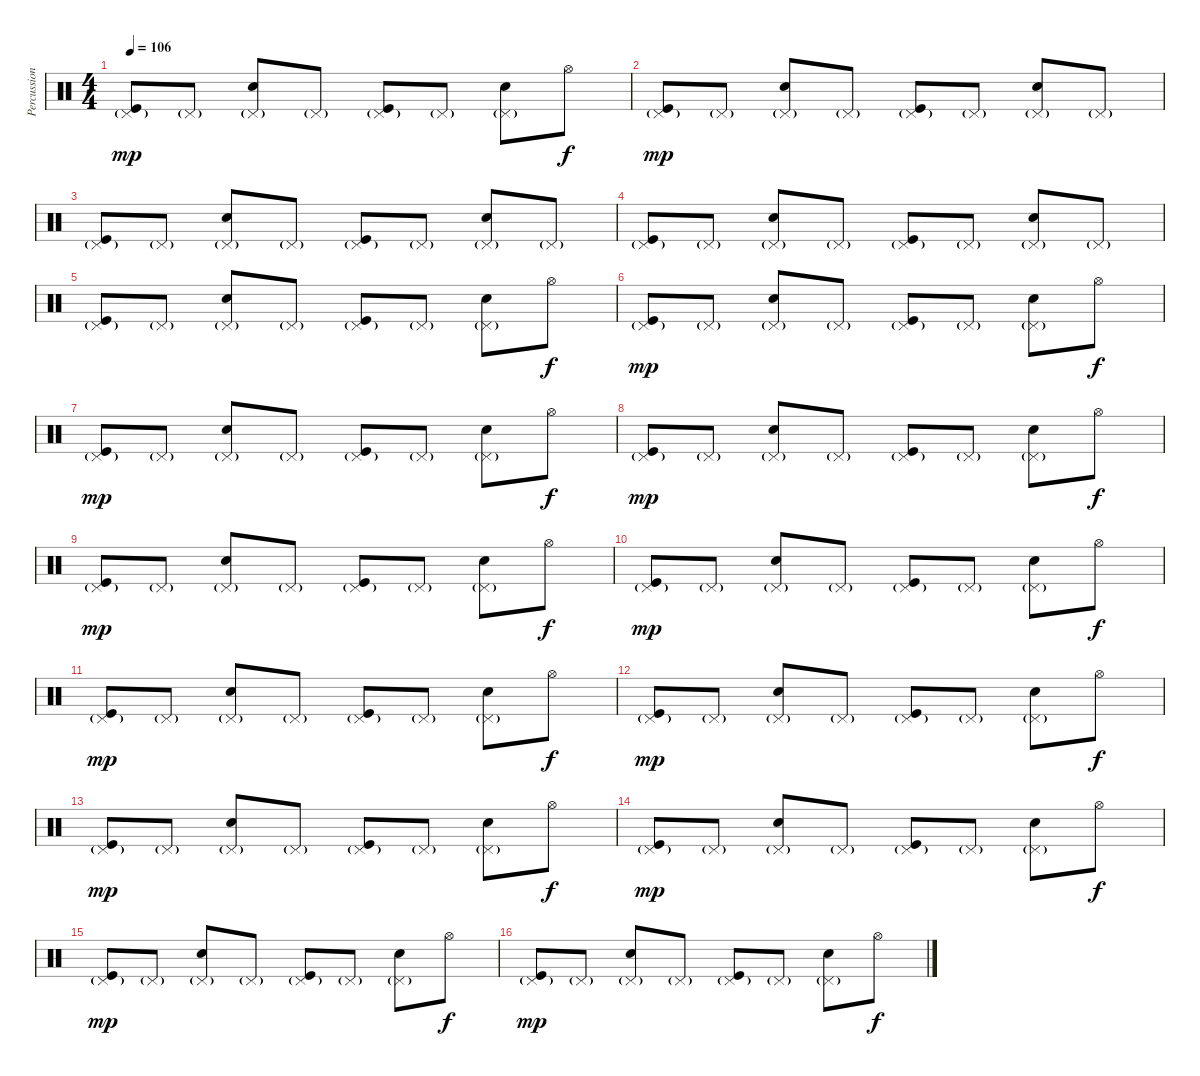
\track ("Percussions" "Percussion") {instrument percussion}
\staff {score}
\articulation defaults
\ts (4 4)
\tempo 106
\clef neutral
\ks c
("Pedal Hi-Hat (hit)"{g} "Kick (hit)").8{dy mp} "Pedal Hi-Hat (hit)"{g}.8 ("Pedal Hi-Hat (hit)"{g} "Electric Snare (hit)").8 "Pedal Hi-Hat (hit)"{g}.8 ("Pedal Hi-Hat (hit)"{g} "Kick (hit)").8 "Pedal Hi-Hat (hit)"{g}.8 ("Pedal Hi-Hat (hit)"{g} "Electric Snare (hit)").8 "Hi-Hat (open)".8{dy f} |
("Pedal Hi-Hat (hit)"{g} "Kick (hit)").8{dy mp volume 13} "Pedal Hi-Hat (hit)"{g}.8 ("Pedal Hi-Hat (hit)"{g} "Electric Snare (hit)").8 "Pedal Hi-Hat (hit)"{g}.8 ("Pedal Hi-Hat (hit)"{g} "Kick (hit)").8 "Pedal Hi-Hat (hit)"{g}.8 ("Pedal Hi-Hat (hit)"{g} "Electric Snare (hit)").8 "Pedal Hi-Hat (hit)"{g}.8 |
("Pedal Hi-Hat (hit)"{g} "Kick (hit)").8 "Pedal Hi-Hat (hit)"{g}.8 ("Pedal Hi-Hat (hit)"{g} "Electric Snare (hit)").8 "Pedal Hi-Hat (hit)"{g}.8 ("Pedal Hi-Hat (hit)"{g} "Kick (hit)").8 "Pedal Hi-Hat (hit)"{g}.8 ("Pedal Hi-Hat (hit)"{g} "Electric Snare (hit)").8 "Pedal Hi-Hat (hit)"{g}.8 |
("Pedal Hi-Hat (hit)"{g} "Kick (hit)").8 "Pedal Hi-Hat (hit)"{g}.8 ("Pedal Hi-Hat (hit)"{g} "Electric Snare (hit)").8 "Pedal Hi-Hat (hit)"{g}.8 ("Pedal Hi-Hat (hit)"{g} "Kick (hit)").8 "Pedal Hi-Hat (hit)"{g}.8 ("Pedal Hi-Hat (hit)"{g} "Electric Snare (hit)").8 "Pedal Hi-Hat (hit)"{g}.8 |
("Pedal Hi-Hat (hit)"{g} "Kick (hit)").8 "Pedal Hi-Hat (hit)"{g}.8 ("Pedal Hi-Hat (hit)"{g} "Electric Snare (hit)").8 "Pedal Hi-Hat (hit)"{g}.8 ("Pedal Hi-Hat (hit)"{g} "Kick (hit)").8 "Pedal Hi-Hat (hit)"{g}.8 ("Pedal Hi-Hat (hit)"{g} "Electric Snare (hit)").8 "Hi-Hat (open)".8{dy f} |
("Pedal Hi-Hat (hit)"{g} "Kick (hit)").8{dy mp} "Pedal Hi-Hat (hit)"{g}.8 ("Pedal Hi-Hat (hit)"{g} "Electric Snare (hit)").8 "Pedal Hi-Hat (hit)"{g}.8 ("Pedal Hi-Hat (hit)"{g} "Kick (hit)").8 "Pedal Hi-Hat (hit)"{g}.8 ("Pedal Hi-Hat (hit)"{g} "Electric Snare (hit)").8 "Hi-Hat (open)".8{dy f} |
("Pedal Hi-Hat (hit)"{g} "Kick (hit)").8{dy mp} "Pedal Hi-Hat (hit)"{g}.8 ("Pedal Hi-Hat (hit)"{g} "Electric Snare (hit)").8 "Pedal Hi-Hat (hit)"{g}.8 ("Pedal Hi-Hat (hit)"{g} "Kick (hit)").8 "Pedal Hi-Hat (hit)"{g}.8 ("Pedal Hi-Hat (hit)"{g} "Electric Snare (hit)").8 "Hi-Hat (open)".8{dy f} |
("Pedal Hi-Hat (hit)"{g} "Kick (hit)").8{dy mp} "Pedal Hi-Hat (hit)"{g}.8 ("Pedal Hi-Hat (hit)"{g} "Electric Snare (hit)").8 "Pedal Hi-Hat (hit)"{g}.8 ("Pedal Hi-Hat (hit)"{g} "Kick (hit)").8 "Pedal Hi-Hat (hit)"{g}.8 ("Pedal Hi-Hat (hit)"{g} "Electric Snare (hit)").8 "Hi-Hat (open)".8{dy f} |
("Pedal Hi-Hat (hit)"{g} "Kick (hit)").8{dy mp} "Pedal Hi-Hat (hit)"{g}.8 ("Pedal Hi-Hat (hit)"{g} "Electric Snare (hit)").8 "Pedal Hi-Hat (hit)"{g}.8 ("Pedal Hi-Hat (hit)"{g} "Kick (hit)").8 "Pedal Hi-Hat (hit)"{g}.8 ("Pedal Hi-Hat (hit)"{g} "Electric Snare (hit)").8 "Hi-Hat (open)".8{dy f} |
("Pedal Hi-Hat (hit)"{g} "Kick (hit)").8{dy mp} "Pedal Hi-Hat (hit)"{g}.8 ("Pedal Hi-Hat (hit)"{g} "Electric Snare (hit)").8 "Pedal Hi-Hat (hit)"{g}.8 ("Pedal Hi-Hat (hit)"{g} "Kick (hit)").8 "Pedal Hi-Hat (hit)"{g}.8 ("Pedal Hi-Hat (hit)"{g} "Electric Snare (hit)").8 "Hi-Hat (open)".8{dy f} |
("Pedal Hi-Hat (hit)"{g} "Kick (hit)").8{dy mp} "Pedal Hi-Hat (hit)"{g}.8 ("Pedal Hi-Hat (hit)"{g} "Electric Snare (hit)").8 "Pedal Hi-Hat (hit)"{g}.8 ("Pedal Hi-Hat (hit)"{g} "Kick (hit)").8 "Pedal Hi-Hat (hit)"{g}.8 ("Pedal Hi-Hat (hit)"{g} "Electric Snare (hit)").8 "Hi-Hat (open)".8{dy f} |
("Pedal Hi-Hat (hit)"{g} "Kick (hit)").8{dy mp} "Pedal Hi-Hat (hit)"{g}.8 ("Pedal Hi-Hat (hit)"{g} "Electric Snare (hit)").8 "Pedal Hi-Hat (hit)"{g}.8 ("Pedal Hi-Hat (hit)"{g} "Kick (hit)").8 "Pedal Hi-Hat (hit)"{g}.8 ("Pedal Hi-Hat (hit)"{g} "Electric Snare (hit)").8 "Hi-Hat (open)".8{dy f} |
("Pedal Hi-Hat (hit)"{g} "Kick (hit)").8{dy mp} "Pedal Hi-Hat (hit)"{g}.8 ("Pedal Hi-Hat (hit)"{g} "Electric Snare (hit)").8 "Pedal Hi-Hat (hit)"{g}.8 ("Pedal Hi-Hat (hit)"{g} "Kick (hit)").8 "Pedal Hi-Hat (hit)"{g}.8 ("Pedal Hi-Hat (hit)"{g} "Electric Snare (hit)").8 "Hi-Hat (open)".8{dy f} |
("Pedal Hi-Hat (hit)"{g} "Kick (hit)").8{dy mp} "Pedal Hi-Hat (hit)"{g}.8 ("Pedal Hi-Hat (hit)"{g} "Electric Snare (hit)").8 "Pedal Hi-Hat (hit)"{g}.8 ("Pedal Hi-Hat (hit)"{g} "Kick (hit)").8 "Pedal Hi-Hat (hit)"{g}.8 ("Pedal Hi-Hat (hit)"{g} "Electric Snare (hit)").8 "Hi-Hat (open)".8{dy f} |
("Pedal Hi-Hat (hit)"{g} "Kick (hit)").8{dy mp} "Pedal Hi-Hat (hit)"{g}.8 ("Pedal Hi-Hat (hit)"{g} "Electric Snare (hit)").8 "Pedal Hi-Hat (hit)"{g}.8 ("Pedal Hi-Hat (hit)"{g} "Kick (hit)").8 "Pedal Hi-Hat (hit)"{g}.8 ("Pedal Hi-Hat (hit)"{g} "Electric Snare (hit)").8 "Hi-Hat (open)".8{dy f} |
("Pedal Hi-Hat (hit)"{g} "Kick (hit)").8{dy mp} "Pedal Hi-Hat (hit)"{g}.8 ("Pedal Hi-Hat (hit)"{g} "Electric Snare (hit)").8 "Pedal Hi-Hat (hit)"{g}.8 ("Pedal Hi-Hat (hit)"{g} "Kick (hit)").8 "Pedal Hi-Hat (hit)"{g}.8 ("Pedal Hi-Hat (hit)"{g} "Electric Snare (hit)").8 "Hi-Hat (open)".8{dy f}
